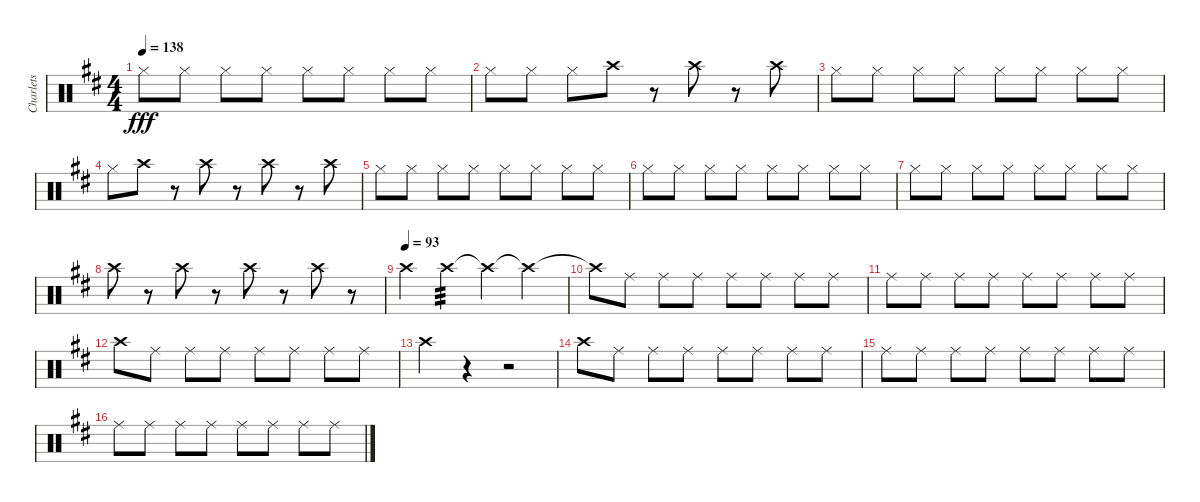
\track ("Charlets" "Charlets") {instrument percussion}
\staff {score}
\articulation defaults
\ts (4 4)
\tempo 138
\clef neutral
\ks d "Hi-Hat (closed)".8{dy fff} "Hi-Hat (closed)".8 "Hi-Hat (closed)".8 "Hi-Hat (closed)".8 "Hi-Hat (closed)".8 "Hi-Hat (closed)".8 "Hi-Hat (closed)".8 "Hi-Hat (closed)".8
|
"Hi-Hat (closed)".8 "Hi-Hat (closed)".8 "Hi-Hat (closed)".8 "Crash high (hit)".8 r.8 "Crash high (hit)".8 r.8 "Crash high (hit)".8 |
"Hi-Hat (closed)".8 "Hi-Hat (closed)".8 "Hi-Hat (closed)".8 "Hi-Hat (closed)".8 "Hi-Hat (closed)".8 "Hi-Hat (closed)".8 "Hi-Hat (closed)".8 "Hi-Hat (closed)".8 |
"Hi-Hat (closed)".8 "Crash high (hit)".8 r.8 "Crash high (hit)".8 r.8 "Crash high (hit)".8 r.8 "Crash high (hit)".8 |
"Hi-Hat (closed)".8 "Hi-Hat (closed)".8 "Hi-Hat (closed)".8 "Hi-Hat (closed)".8 "Hi-Hat (closed)".8 "Hi-Hat (closed)".8 "Hi-Hat (closed)".8 "Hi-Hat (closed)".8 |
"Hi-Hat (closed)".8 "Hi-Hat (closed)".8 "Hi-Hat (closed)".8 "Hi-Hat (closed)".8 "Hi-Hat (closed)".8 "Hi-Hat (closed)".8 "Hi-Hat (closed)".8 "Hi-Hat (closed)".8 |
"Hi-Hat (closed)".8 "Hi-Hat (closed)".8 "Hi-Hat (closed)".8 "Hi-Hat (closed)".8 "Hi-Hat (closed)".8 "Hi-Hat (closed)".8 "Hi-Hat (closed)".8 "Hi-Hat (closed)".8 |
"Crash high (hit)".8 r.8 "Crash high (hit)".8 r.8 "Crash high (hit)".8 r.8 "Crash high (hit)".8 r.8 |
\tempo (93)
"Crash high (hit)".4 "Crash high (hit)".4{tp 3} "Crash high (hit)"{t}.4 "Crash high (hit)"{t}.4 |
"Crash high (hit)"{t}.8 "Ride (middle)".8 "Ride (middle)".8 "Ride (middle)".8 "Ride (middle)".8 "Ride (middle)".8 "Ride (middle)".8 "Ride (middle)".8 |
"Ride (middle)".8 "Ride (middle)".8 "Ride (middle)".8 "Ride (middle)".8 "Ride (middle)".8 "Ride (middle)".8 "Ride (middle)".8 "Ride (middle)".8 |
"Crash high (hit)".8 "Ride (middle)".8 "Ride (middle)".8 "Ride (middle)".8 "Ride (middle)".8 "Ride (middle)".8 "Ride (middle)".8 "Ride (middle)".8 |
"Crash high (hit)".4 r.4 r.2 |
"Crash high (hit)".8 "Ride (middle)".8 "Ride (middle)".8 "Ride (middle)".8 "Ride (middle)".8 "Ride (middle)".8 "Ride (middle)".8 "Ride (middle)".8 |
"Ride (middle)".8 "Ride (middle)".8 "Ride (middle)".8 "Ride (middle)".8 "Ride (middle)".8 "Ride (middle)".8 "Ride (middle)".8 "Ride (middle)".8 |
"Ride (middle)".8 "Ride (middle)".8 "Ride (middle)".8 "Ride (middle)".8 "Ride (middle)".8 "Ride (middle)".8 "Ride (middle)".8 "Ride (middle)".8
